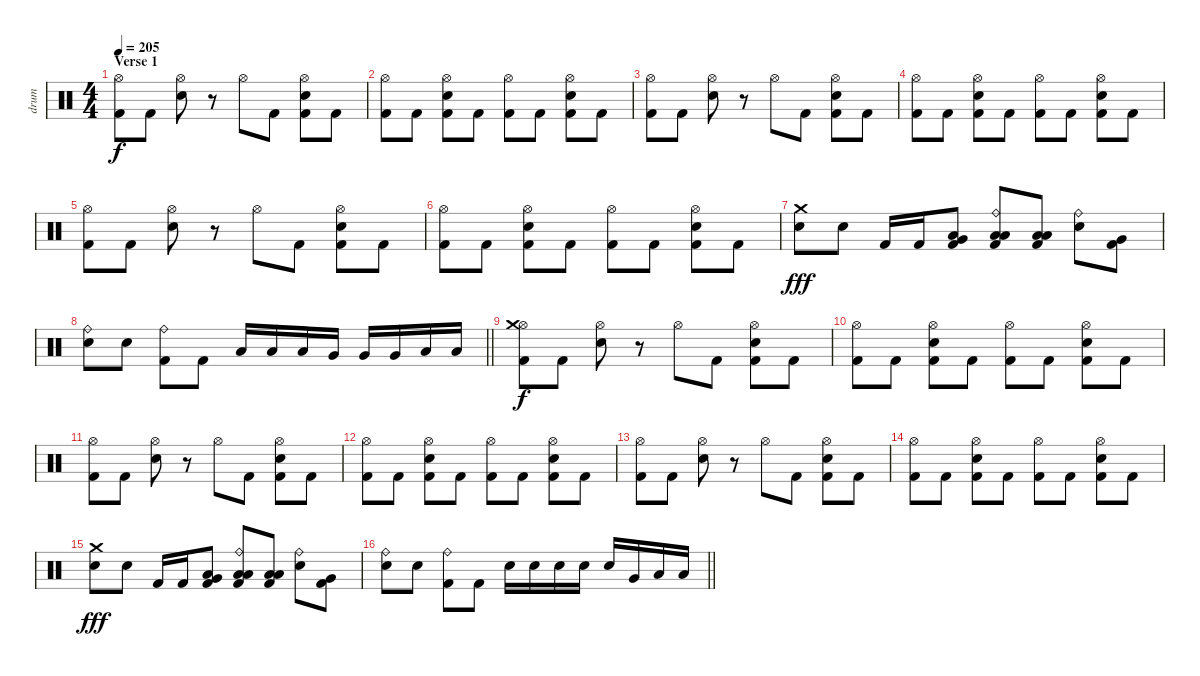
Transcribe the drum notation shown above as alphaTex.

\track ("drum" "drum") {instrument percussion}
\staff {score}
\articulation defaults
\ts (4 4)
\section ("" "Verse 1")
\tempo 205
\clef neutral
\ks c
("Hi-Hat (open)" "Kick (hit) 2").8{dy f} "Kick (hit) 2".8 ("Hi-Hat (open)" "Electric Snare (hit)").8 r.8 "Hi-Hat (open)".8 "Kick (hit) 2".8 ("Hi-Hat (open)" "Electric Snare (hit)" "Kick (hit) 2").8 "Kick (hit) 2".8 |
("Hi-Hat (open)" "Kick (hit) 2").8 "Kick (hit) 2".8 ("Hi-Hat (open)" "Electric Snare (hit)" "Kick (hit) 2").8 "Kick (hit) 2".8 ("Hi-Hat (open)" "Kick (hit) 2").8 "Kick (hit) 2".8 ("Hi-Hat (open)" "Electric Snare (hit)" "Kick (hit) 2").8 "Kick (hit) 2".8 |
("Hi-Hat (open)" "Kick (hit) 2").8 "Kick (hit) 2".8 ("Hi-Hat (open)" "Electric Snare (hit)").8 r.8 "Hi-Hat (open)".8 "Kick (hit) 2".8 ("Hi-Hat (open)" "Electric Snare (hit)" "Kick (hit) 2").8 "Kick (hit) 2".8 |
("Hi-Hat (open)" "Kick (hit) 2").8 "Kick (hit) 2".8 ("Hi-Hat (open)" "Electric Snare (hit)" "Kick (hit) 2").8 "Kick (hit) 2".8 ("Hi-Hat (open)" "Kick (hit) 2").8 "Kick (hit) 2".8 ("Hi-Hat (open)" "Electric Snare (hit)" "Kick (hit) 2").8 "Kick (hit) 2".8 |
("Hi-Hat (open)" "Kick (hit) 2").8 "Kick (hit) 2".8 ("Hi-Hat (open)" "Electric Snare (hit)").8 r.8 "Hi-Hat (open)".8 "Kick (hit) 2".8 ("Hi-Hat (open)" "Electric Snare (hit)" "Kick (hit) 2").8 "Kick (hit) 2".8 |
("Hi-Hat (open)" "Kick (hit) 2").8 "Kick (hit) 2".8 ("Hi-Hat (open)" "Electric Snare (hit)" "Kick (hit) 2").8 "Kick (hit) 2".8 ("Hi-Hat (open)" "Kick (hit) 2").8 "Kick (hit) 2".8 ("Hi-Hat (open)" "Electric Snare (hit)" "Kick (hit) 2").8 "Kick (hit) 2".8 |
("Crash medium (hit)" "Electric Snare (hit)").8{dy fff} "Electric Snare (hit)".8 "Kick (hit) 2".16 "Kick (hit) 2".16 ("Very Low Tom (hit)" "Low Floor Tom (hit)" "Kick (hit) 2").8 ("Ride (bell)" "Low Tom (hit)" "Low Floor Tom (hit)" "Kick (hit) 2").8 ("Low Floor Tom (hit)" "Low Floor Tom (hit)" "Kick (hit) 2").8 ("Ride (bell)" "Electric Snare (hit)").8 ("Very Low Tom (hit)" "Kick (hit) 2").8 |
\barLineRight lightlight
("Ride (bell)" "Electric Snare (hit)").8 "Electric Snare (hit)".8 ("Ride (bell)" "Kick (hit) 2").8 "Kick (hit) 2".8 "Low Tom (hit)".16 "Low Tom (hit)".16 "Low Tom (hit)".16 "Very Low Tom (hit)".16 "Very Low Tom (hit)".16 "Very Low Tom (hit)".16 "Low Floor Tom (hit)".16 "Low Floor Tom (hit)".16 |
("Hi-Hat (open)" "Crash medium (hit)" "Kick (hit) 2").8{dy f} "Kick (hit) 2".8 ("Hi-Hat (open)" "Electric Snare (hit)").8 r.8 "Hi-Hat (open)".8 "Kick (hit) 2".8 ("Hi-Hat (open)" "Electric Snare (hit)" "Kick (hit) 2").8 "Kick (hit) 2".8 |
("Hi-Hat (open)" "Kick (hit) 2").8 "Kick (hit) 2".8 ("Hi-Hat (open)" "Electric Snare (hit)" "Kick (hit) 2").8 "Kick (hit) 2".8 ("Hi-Hat (open)" "Kick (hit) 2").8 "Kick (hit) 2".8 ("Hi-Hat (open)" "Electric Snare (hit)" "Kick (hit) 2").8 "Kick (hit) 2".8 |
("Hi-Hat (open)" "Kick (hit) 2").8 "Kick (hit) 2".8 ("Hi-Hat (open)" "Electric Snare (hit)").8 r.8 "Hi-Hat (open)".8 "Kick (hit) 2".8 ("Hi-Hat (open)" "Electric Snare (hit)" "Kick (hit) 2").8 "Kick (hit) 2".8 |
("Hi-Hat (open)" "Kick (hit) 2").8 "Kick (hit) 2".8 ("Hi-Hat (open)" "Electric Snare (hit)" "Kick (hit) 2").8 "Kick (hit) 2".8 ("Hi-Hat (open)" "Kick (hit) 2").8 "Kick (hit) 2".8 ("Hi-Hat (open)" "Electric Snare (hit)" "Kick (hit) 2").8 "Kick (hit) 2".8 |
("Hi-Hat (open)" "Kick (hit) 2").8 "Kick (hit) 2".8 ("Hi-Hat (open)" "Electric Snare (hit)").8 r.8 "Hi-Hat (open)".8 "Kick (hit) 2".8 ("Hi-Hat (open)" "Electric Snare (hit)" "Kick (hit) 2").8 "Kick (hit) 2".8 |
("Hi-Hat (open)" "Kick (hit) 2").8 "Kick (hit) 2".8 ("Hi-Hat (open)" "Electric Snare (hit)" "Kick (hit) 2").8 "Kick (hit) 2".8 ("Hi-Hat (open)" "Kick (hit) 2").8 "Kick (hit) 2".8 ("Hi-Hat (open)" "Electric Snare (hit)" "Kick (hit) 2").8 "Kick (hit) 2".8 |
("Crash medium (hit)" "Electric Snare (hit)").8{dy fff} "Electric Snare (hit)".8 "Kick (hit) 2".16 "Kick (hit) 2".16 ("Very Low Tom (hit)" "Low Floor Tom (hit)" "Kick (hit) 2").8 ("Ride (bell)" "Low Tom (hit)" "Low Floor Tom (hit)" "Kick (hit) 2").8 ("Low Floor Tom (hit)" "Low Floor Tom (hit)" "Kick (hit) 2").8 ("Ride (bell)" "Electric Snare (hit)").8 ("Very Low Tom (hit)" "Kick (hit) 2").8 |
\barLineRight lightlight
("Ride (bell)" "Electric Snare (hit)").8 "Electric Snare (hit)".8 ("Ride (bell)" "Kick (hit) 2").8 "Kick (hit) 2".8 "Electric Snare (hit)".16 "Electric Snare (hit)".16 "Electric Snare (hit)".16 "Electric Snare (hit)".16 "Electric Snare (hit)".16 "Very Low Tom (hit)".16 "Low Floor Tom (hit)".16 "Low Floor Tom (hit)".16
